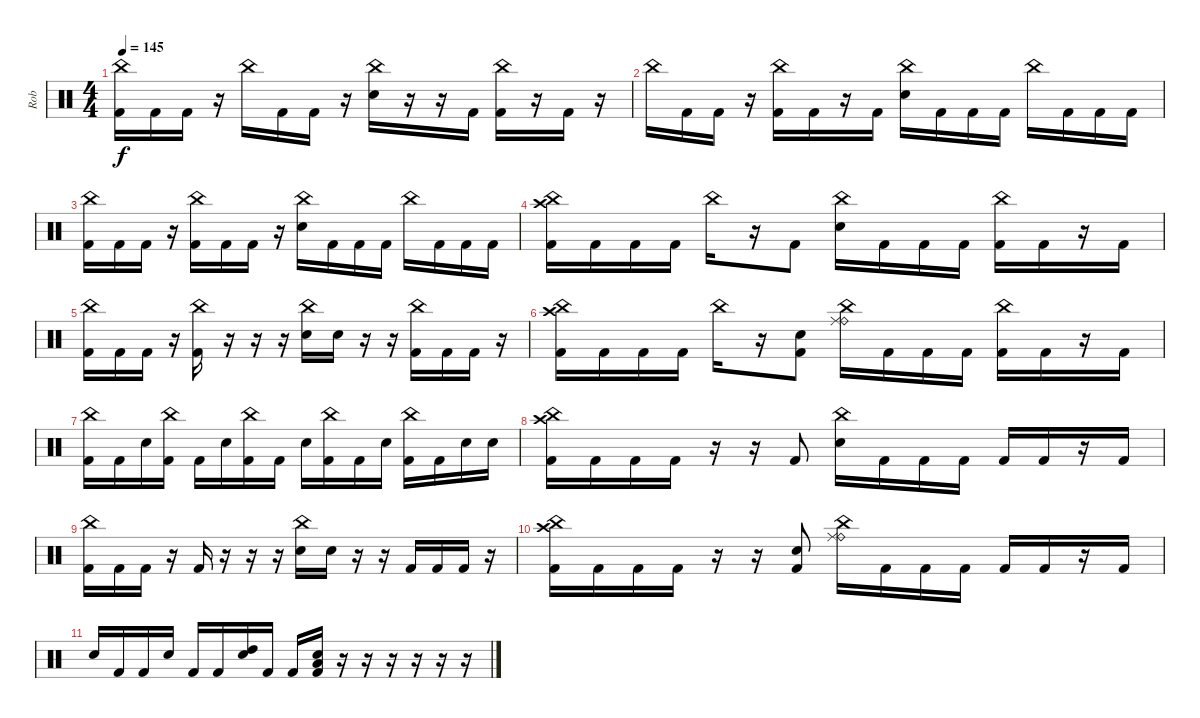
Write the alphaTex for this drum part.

\track ("Rob" "Rob") {instrument percussion}
\staff {score}
\articulation defaults
\ts (4 4)
\tempo 145
\clef neutral
\ks c
("China (hit)" "Kick (hit) 2").16{dy f} "Kick (hit) 2".16 "Kick (hit) 2".16 r.16 "China (hit)".16 "Kick (hit) 2".16 "Kick (hit) 2".16 r.16 ("China (hit)" "Electric Snare (hit)").16 r.16 r.16 "Kick (hit) 2".16 ("China (hit)" "Kick (hit) 2").16 r.16 "Kick (hit) 2".16 r.16 |
"China (hit)".16 "Kick (hit) 2".16 "Kick (hit) 2".16 r.16 ("China (hit)" "Kick (hit) 2").16 "Kick (hit) 2".16 r.16 "Kick (hit) 2".16 ("China (hit)" "Electric Snare (hit)").16 "Kick (hit) 2".16 "Kick (hit) 2".16 "Kick (hit) 2".16 "China (hit)".16 "Kick (hit) 2".16 "Kick (hit) 2".16 "Kick (hit) 2".16 |
("China (hit)" "Kick (hit) 2").16 "Kick (hit) 2".16 "Kick (hit) 2".16 r.16 ("China (hit)" "Kick (hit) 2").16 "Kick (hit) 2".16 "Kick (hit) 2".16 r.16 ("China (hit)" "Electric Snare (hit)").16 "Kick (hit) 2".16 "Kick (hit) 2".16 "Kick (hit) 2".16 "China (hit)".16 "Kick (hit) 2".16 "Kick (hit) 2".16 "Kick (hit) 2".16 |
("China (hit)" "Crash high (hit)" "Kick (hit) 2").16 "Kick (hit) 2".16 "Kick (hit) 2".16 "Kick (hit) 2".16 "China (hit)".16 r.16 "Kick (hit) 2".8 ("Electric Snare (hit)" "China (hit)").16 "Kick (hit) 2".16 "Kick (hit) 2".16 "Kick (hit) 2".16 ("China (hit)" "Kick (hit) 2").16 "Kick (hit) 2".16 r.16 "Kick (hit) 2".16 |
("China (hit)" "Kick (hit) 2").16 "Kick (hit) 2".16 "Kick (hit) 2".16 r.16 ("China (hit)" "Kick (hit) 2").16 r.16 r.16 r.16 ("China (hit)" "Electric Snare (hit)").16 "Electric Snare (hit)".16 r.16 r.16 ("China (hit)" "Kick (hit) 2").16 "Kick (hit) 2".16 "Kick (hit) 2".16 r.16 |
("China (hit)" "Crash high (hit)" "Kick (hit) 2").16 "Kick (hit) 2".16 "Kick (hit) 2".16 "Kick (hit) 2".16 "China (hit)".16 r.16 ("Electric Snare (hit)" "Kick (hit) 2").8 ("Ride (bell)" "Ride (middle)" "China (hit)").16 "Kick (hit) 2".16 "Kick (hit) 2".16 "Kick (hit) 2".16 ("China (hit)" "Kick (hit) 2").16 "Kick (hit) 2".16 r.16 "Kick (hit) 2".16 |
("China (hit)" "Kick (hit) 2").16 "Kick (hit) 2".16 "Electric Snare (hit)".16 ("China (hit)" "Kick (hit) 2").16 "Kick (hit) 2".16 "Electric Snare (hit)".16 ("China (hit)" "Kick (hit) 2").16 "Kick (hit) 2".16 "Electric Snare (hit)".16 ("China (hit)" "Kick (hit) 2").16 "Kick (hit) 2".16 "Electric Snare (hit)".16 ("China (hit)" "Kick (hit) 2").16 "Kick (hit) 2".16 "Electric Snare (hit)".16 "Electric Snare (hit)".16 |
("China (hit)" "Crash high (hit)" "Kick (hit) 2").16 "Kick (hit) 2".16 "Kick (hit) 2".16 "Kick (hit) 2".16 r.16 r.16 "Kick (hit) 2".8 ("Electric Snare (hit)" "China (hit)").16 "Kick (hit) 2".16 "Kick (hit) 2".16 "Kick (hit) 2".16 "Kick (hit) 2".16 "Kick (hit) 2".16 r.16 "Kick (hit) 2".16 |
("China (hit)" "Kick (hit) 2").16 "Kick (hit) 2".16 "Kick (hit) 2".16 r.16 "Kick (hit) 2".16 r.16 r.16 r.16 ("China (hit)" "Electric Snare (hit)").16 "Electric Snare (hit)".16 r.16 r.16 "Kick (hit) 2".16 "Kick (hit) 2".16 "Kick (hit) 2".16 r.16 |
("China (hit)" "Crash high (hit)" "Kick (hit) 2").16 "Kick (hit) 2".16 "Kick (hit) 2".16 "Kick (hit) 2".16 r.16 r.16 ("Electric Snare (hit)" "Kick (hit) 2").8 ("Ride (bell)" "Ride (middle)" "China (hit)").16 "Kick (hit) 2".16 "Kick (hit) 2".16 "Kick (hit) 2".16 "Kick (hit) 2".16 "Kick (hit) 2".16 r.16 "Kick (hit) 2".16 |
"Electric Snare (hit)".16 "Kick (hit) 2".16 "Kick (hit) 2".16 "Electric Snare (hit)".16 "Kick (hit) 2".16 "Kick (hit) 2".16 ("High Tom (hit)" "Electric Snare (hit)").16 "Kick (hit) 2".16 "Kick (hit) 2".16 ("Low Tom (hit)" "Electric Snare (hit)" "Kick (hit) 2").16 r.16 r.16 r.16 r.16 r.16 r.16
